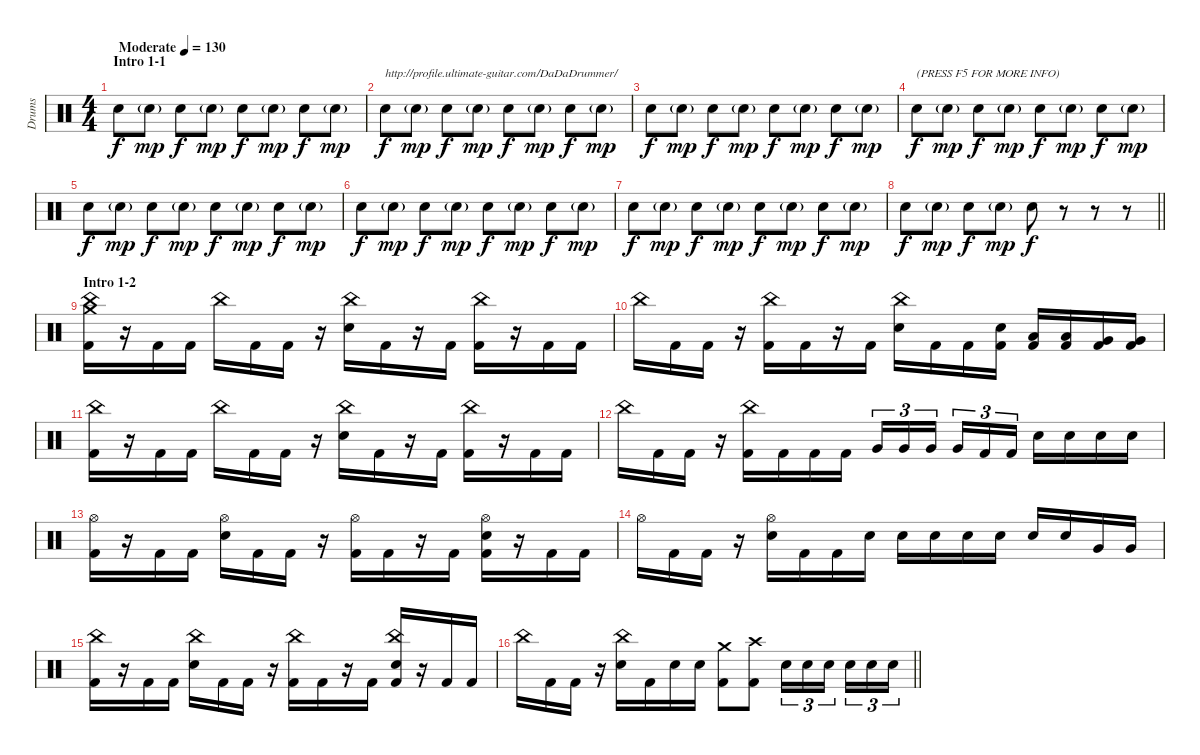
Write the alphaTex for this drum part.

\track ("Drums" "Drums") {instrument percussion}
\staff {score}
\articulation defaults
\ts (4 4)
\section ("" "Intro 1-1")
\tempo (130 "Moderate")
\clef neutral
\ks c "Electric Snare (hit)".8{dy f volume 0} "Electric Snare (hit)"{g}.8{dy mp volume 7} "Electric Snare (hit)".8{dy f} "Electric Snare (hit)"{g}.8{dy mp} "Electric Snare (hit)".8{dy f} "Electric Snare (hit)"{g}.8{dy mp} "Electric Snare (hit)".8{dy f} "Electric Snare (hit)"{g}.8{dy mp}
|
"Electric Snare (hit)".8{txt "http://profile.ultimate-guitar.com/DaDaDrummer/" dy f} "Electric Snare (hit)"{g}.8{dy mp} "Electric Snare (hit)".8{dy f} "Electric Snare (hit)"{g}.8{dy mp} "Electric Snare (hit)".8{dy f} "Electric Snare (hit)"{g}.8{dy mp} "Electric Snare (hit)".8{dy f} "Electric Snare (hit)"{g}.8{dy mp} |
"Electric Snare (hit)".8{dy f} "Electric Snare (hit)"{g}.8{dy mp} "Electric Snare (hit)".8{dy f} "Electric Snare (hit)"{g}.8{dy mp} "Electric Snare (hit)".8{dy f} "Electric Snare (hit)"{g}.8{dy mp} "Electric Snare (hit)".8{dy f} "Electric Snare (hit)"{g}.8{dy mp} |
"Electric Snare (hit)".8{txt "(PRESS F5 FOR MORE INFO)" dy f} "Electric Snare (hit)"{g}.8{dy mp} "Electric Snare (hit)".8{dy f} "Electric Snare (hit)"{g}.8{dy mp} "Electric Snare (hit)".8{dy f} "Electric Snare (hit)"{g}.8{dy mp} "Electric Snare (hit)".8{dy f} "Electric Snare (hit)"{g}.8{dy mp} |
"Electric Snare (hit)".8{dy f volume 13} "Electric Snare (hit)"{g}.8{dy mp} "Electric Snare (hit)".8{dy f} "Electric Snare (hit)"{g}.8{dy mp} "Electric Snare (hit)".8{dy f} "Electric Snare (hit)"{g}.8{dy mp} "Electric Snare (hit)".8{dy f} "Electric Snare (hit)"{g}.8{dy mp} |
"Electric Snare (hit)".8{dy f} "Electric Snare (hit)"{g}.8{dy mp} "Electric Snare (hit)".8{dy f} "Electric Snare (hit)"{g}.8{dy mp} "Electric Snare (hit)".8{dy f} "Electric Snare (hit)"{g}.8{dy mp} "Electric Snare (hit)".8{dy f} "Electric Snare (hit)"{g}.8{dy mp} |
"Electric Snare (hit)".8{dy f} "Electric Snare (hit)"{g}.8{dy mp} "Electric Snare (hit)".8{dy f} "Electric Snare (hit)"{g}.8{dy mp} "Electric Snare (hit)".8{dy f} "Electric Snare (hit)"{g}.8{dy mp} "Electric Snare (hit)".8{dy f} "Electric Snare (hit)"{g}.8{dy mp} |
\barLineRight lightlight "Electric Snare (hit)".8{dy f} "Electric Snare (hit)"{g}.8{dy mp} "Electric Snare (hit)".8{dy f} "Electric Snare (hit)"{g}.8{dy mp} "Electric Snare (hit)".8{dy f}
r.8 r.8 r.8 |
\section ("" "Intro 1-2")
("Crash medium (hit)" "China (hit)" "Kick (hit) 2").16 r.16 "Kick (hit) 2".16 "Kick (hit) 2".16 "China (hit)".16 "Kick (hit) 2".16 "Kick (hit) 2".16 r.16 ("China (hit)" "Electric Snare (hit)").16 "Kick (hit) 2".16 r.16 "Kick (hit) 2".16 ("China (hit)" "Kick (hit) 2").16 r.16 "Kick (hit) 2".16 "Kick (hit) 2".16 |
"China (hit)".16 "Kick (hit) 2".16 "Kick (hit) 2".16 r.16 ("China (hit)" "Kick (hit) 2").16 "Kick (hit) 2".16 r.16 "Kick (hit) 2".16 ("China (hit)" "Electric Snare (hit)").16 "Kick (hit) 2".16 "Kick (hit) 2".16 ("Electric Snare (hit)" "Kick (hit) 2").16 ("Low Tom (hit)" "Kick (hit) 2").16 ("Low Tom (hit)" "Kick (hit) 2").16 ("Very Low Tom (hit)" "Kick (hit) 2").16 ("Very Low Tom (hit)" "Kick (hit) 2").16 |
("China (hit)" "Kick (hit) 2").16 r.16 "Kick (hit) 2".16 "Kick (hit) 2".16 "China (hit)".16 "Kick (hit) 2".16 "Kick (hit) 2".16 r.16 ("China (hit)" "Electric Snare (hit)").16 "Kick (hit) 2".16 r.16 "Kick (hit) 2".16 ("China (hit)" "Kick (hit) 2").16 r.16 "Kick (hit) 2".16 "Kick (hit) 2".16 |
"China (hit)".16 "Kick (hit) 2".16 "Kick (hit) 2".16 r.16 ("China (hit)" "Kick (hit) 2").16 "Kick (hit) 2".16 "Kick (hit) 2".16 "Kick (hit) 2".16 "Very Low Tom (hit)".16{tu (3 2)} "Very Low Tom (hit)".16{tu (3 2)} "Very Low Tom (hit)".16{tu (3 2) beam splitsecondary} "Very Low Tom (hit)".16{tu (3 2)} "Kick (hit) 2".16{tu (3 2)} "Kick (hit) 2".16{tu (3 2)} "Electric Snare (hit)".16 "Electric Snare (hit)".16 "Electric Snare (hit)".16 "Electric Snare (hit)".16 |
("Hi-Hat (open)" "Kick (hit) 2").16 r.16 "Kick (hit) 2".16 "Kick (hit) 2".16 ("Hi-Hat (open)" "Electric Snare (hit)").16 "Kick (hit) 2".16 "Kick (hit) 2".16 r.16 ("Hi-Hat (open)" "Kick (hit) 2").16 "Kick (hit) 2".16 r.16 "Kick (hit) 2".16 ("Hi-Hat (open)" "Electric Snare (hit)" "Kick (hit) 2").16 r.16 "Kick (hit) 2".16 "Kick (hit) 2".16 |
"Hi-Hat (open)".16 "Kick (hit) 2".16 "Kick (hit) 2".16 r.16 ("Hi-Hat (open)" "Electric Snare (hit)").16 "Kick (hit) 2".16 "Kick (hit) 2".16 "Electric Snare (hit)".16 "Electric Snare (hit)".16 "Electric Snare (hit)".16 "Electric Snare (hit)".16 "Electric Snare (hit)".16 "Electric Snare (hit)".16 "Electric Snare (hit)".16 "Very Low Tom (hit)".16 "Very Low Tom (hit)".16 |
("China (hit)" "Kick (hit) 2").16 r.16 "Kick (hit) 2".16 "Kick (hit) 2".16 ("China (hit)" "Electric Snare (hit)").16 "Kick (hit) 2".16 "Kick (hit) 2".16 r.16 ("China (hit)" "Kick (hit) 2").16 "Kick (hit) 2".16 r.16 "Kick (hit) 2".16 ("China (hit)" "Electric Snare (hit)" "Kick (hit) 2").16 r.16 "Kick (hit) 2".16 "Kick (hit) 2".16 |
\barLineRight lightlight "China (hit)".16 "Kick (hit) 2".16 "Kick (hit) 2".16
r.16 ("China (hit)" "Electric Snare (hit)").16 "Kick (hit) 2".16 "Electric Snare (hit)".16 "Electric Snare (hit)".16 ("Crash medium (hit)" "Kick (hit) 2").8 ("Crash high (hit)" "Kick (hit) 2").8 "Electric Snare (hit)".16{tu (3 2)} "Electric Snare (hit)".16{tu (3 2)} "Electric Snare (hit)".16{tu (3 2) beam splitsecondary} "Electric Snare (hit)".16{tu (3 2)} "Electric Snare (hit)".16{tu (3 2)} "Electric Snare (hit)".16{tu (3 2)}
